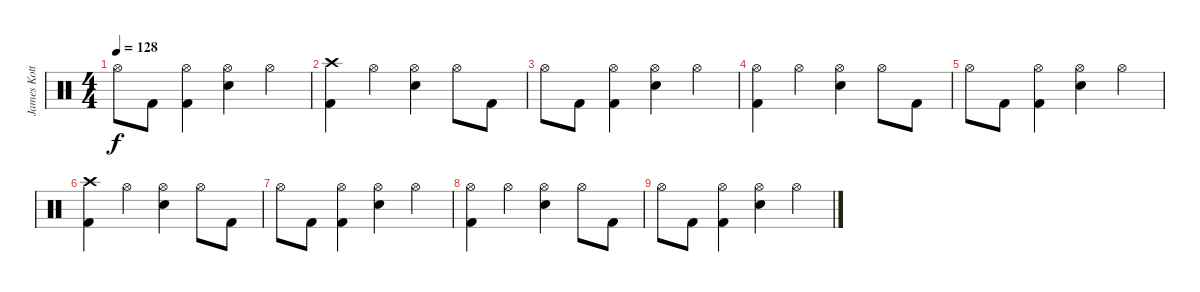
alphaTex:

\track ("James Kottak" "James Kott") {instrument percussion}
\staff {score}
\articulation defaults
\ts (4 4)
\tempo 128
\clef neutral
\ks c "Hi-Hat (open)".8{dy f volume 7} "Kick (hit) 2".8
("Hi-Hat (open)" "Kick (hit) 2").4 ("Hi-Hat (open)" "Electric Snare (hit)").4 "Hi-Hat (open)".4 |
("Crash high (hit)" "Kick (hit) 2").4{volume 6} "Hi-Hat (open)".4 ("Hi-Hat (open)" "Electric Snare (hit)").4 "Hi-Hat (open)".8 "Kick (hit) 2".8 |
"Hi-Hat (open)".8{volume 5} "Kick (hit) 2".8 ("Hi-Hat (open)" "Kick (hit) 2").4 ("Hi-Hat (open)" "Electric Snare (hit)").4 "Hi-Hat (open)".4 |
("Hi-Hat (open)" "Kick (hit) 2").4{volume 4} "Hi-Hat (open)".4 ("Hi-Hat (open)" "Electric Snare (hit)").4 "Hi-Hat (open)".8 "Kick (hit) 2".8 |
"Hi-Hat (open)".8{volume 3} "Kick (hit) 2".8 ("Hi-Hat (open)" "Kick (hit) 2").4 ("Hi-Hat (open)" "Electric Snare (hit)").4 "Hi-Hat (open)".4 |
("Crash high (hit)" "Kick (hit) 2").4{volume 2} "Hi-Hat (open)".4 ("Hi-Hat (open)" "Electric Snare (hit)").4 "Hi-Hat (open)".8 "Kick (hit) 2".8 |
"Hi-Hat (open)".8{volume 1} "Kick (hit) 2".8 ("Hi-Hat (open)" "Kick (hit) 2").4 ("Hi-Hat (open)" "Electric Snare (hit)").4 "Hi-Hat (open)".4 |
("Hi-Hat (open)" "Kick (hit) 2").4{volume 0} "Hi-Hat (open)".4 ("Hi-Hat (open)" "Electric Snare (hit)").4 "Hi-Hat (open)".8 "Kick (hit) 2".8 |
"Hi-Hat (open)".8{volume 0} "Kick (hit) 2".8 ("Hi-Hat (open)" "Kick (hit) 2").4 ("Hi-Hat (open)" "Electric Snare (hit)").4 "Hi-Hat (open)".4
